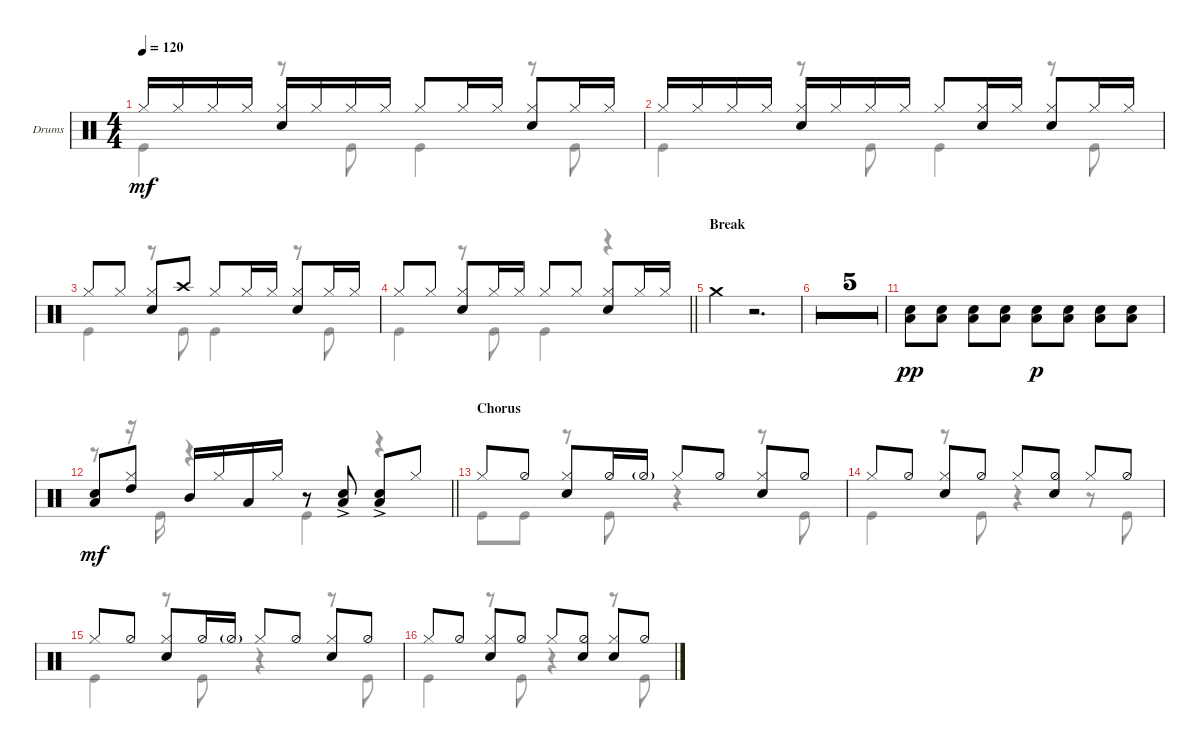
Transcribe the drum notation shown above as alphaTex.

\defaultSystemsLayout 4
\bracketExtendMode groupsimilarinstruments
\firstSystemTrackNameOrientation horizontal
\otherSystemsTrackNameOrientation horizontal
\track ("Drums" "Drums") {multiBarRest instrument percussion}
\staff {score}
\articulation defaults
\voice
\ts (4 4)
\tempo 120
\clef neutral
\ks c "Hi-Hat (closed)".16{dy mf} "Hi-Hat (closed)".16 "Hi-Hat (closed)".16 "Hi-Hat (closed)".16
("Hi-Hat (closed)" "Snare (hit) 2").16 "Hi-Hat (closed)".16 "Hi-Hat (closed)".16 "Hi-Hat (closed)".16 "Hi-Hat (closed)".8 "Hi-Hat (closed)".16 "Hi-Hat (closed)".16 ("Hi-Hat (closed)" "Snare (hit) 2").8 "Hi-Hat (closed)".16 "Hi-Hat (closed)".16 |
"Hi-Hat (closed)".16 "Hi-Hat (closed)".16 "Hi-Hat (closed)".16 "Hi-Hat (closed)".16 ("Hi-Hat (closed)" "Snare (hit) 2").16 "Hi-Hat (closed)".16 "Hi-Hat (closed)".16 "Hi-Hat (closed)".16 "Hi-Hat (closed)".8 ("Hi-Hat (closed)" "Snare (hit) 2").16 "Hi-Hat (closed)".16 ("Hi-Hat (closed)" "Snare (hit) 2").8 "Hi-Hat (closed)".16 "Hi-Hat (closed)".16 |
"Hi-Hat (closed)".8 "Hi-Hat (closed)".8 ("Hi-Hat (closed)" "Snare (hit) 2").8 "Crash high (hit)".8 "Hi-Hat (closed)".8 "Hi-Hat (closed)".16 "Hi-Hat (closed)".16 ("Hi-Hat (closed)" "Snare (hit) 2").8 "Hi-Hat (closed)".16 "Hi-Hat (closed)".16 |
\barLineRight lightlight "Hi-Hat (closed)".8 "Hi-Hat (closed)".8
("Hi-Hat (closed)" "Snare (hit) 2").8 "Hi-Hat (closed)".16 "Hi-Hat (closed)".16 "Hi-Hat (closed)".8 "Hi-Hat (closed)".8 ("Hi-Hat (closed)" "Snare (hit) 2").8 "Hi-Hat (closed)".16 "Hi-Hat (closed)".16 |
\section ("" "Break")
"Crash medium (hit)".4 r.2{d} |
|
|
|
|
|
("Snare (hit) 2" "Low Tom (hit)").8{dy pp} ("Snare (hit) 2" "Low Tom (hit)").8 ("Snare (hit) 2" "Low Tom (hit)").8 ("Snare (hit) 2" "Low Tom (hit)").8 ("Snare (hit) 2" "Low Tom (hit)").8{dy p} ("Snare (hit) 2" "Low Tom (hit)").8 ("Snare (hit) 2" "Low Tom (hit)").8 ("Snare (hit) 2" "Low Tom (hit)").8 |
\barLineRight lightlight
("Snare (hit) 2" "Low Tom (hit)").8{dy mf} ("High Tom (hit)" "Hi-Hat (closed)").8 "Mid Tom (hit)".16 "Hi-Hat (closed)".16 "Low Tom (hit)".16 "Hi-Hat (closed)".16 r.8 ("Snare (hit) 2"{ac} "Low Tom (hit)"{ac}).8 ("Snare (hit) 2"{ac} "Low Tom (hit)"{ac}).8 "Hi-Hat (closed)".8 |
\section ("" "Chorus")
"Hi-Hat (closed)".8 "Hi-Hat (half)".8 ("Hi-Hat (closed)" "Snare (hit) 2").8 "Hi-Hat (half)".16 "Hi-Hat (half)"{g}.16 "Hi-Hat (closed)".8 "Hi-Hat (half)".8 ("Hi-Hat (closed)" "Snare (hit) 2").8 "Hi-Hat (half)".8 |
"Hi-Hat (closed)".8 "Hi-Hat (half)".8 ("Hi-Hat (closed)" "Snare (hit) 2").8 "Hi-Hat (half)".8 "Hi-Hat (closed)".8 ("Hi-Hat (half)" "Snare (hit) 2").8 "Hi-Hat (closed)".8 "Hi-Hat (half)".8 |
"Hi-Hat (closed)".8 "Hi-Hat (half)".8 ("Hi-Hat (closed)" "Snare (hit) 2").8 "Hi-Hat (half)".16 "Hi-Hat (half)"{g}.16 "Hi-Hat (closed)".8 "Hi-Hat (half)".8 ("Hi-Hat (closed)" "Snare (hit) 2").8 "Hi-Hat (half)".8 |
"Hi-Hat (closed)".8 "Hi-Hat (half)".8 ("Hi-Hat (closed)" "Snare (hit) 2").8 "Hi-Hat (half)".8 "Hi-Hat (closed)".8 ("Hi-Hat (half)" "Snare (hit) 2").8 ("Hi-Hat (closed)" "Snare (hit) 2").8 "Hi-Hat (half)".8
\voice
\clef neutral
\ottava regular
\simile none
\ks c "Kick (hit)".4{dy mf}
r.8 "Kick (hit)".8 "Kick (hit)".4 r.8 "Kick (hit)".8 |
"Kick (hit)".4 r.8 "Kick (hit)".8 "Kick (hit)".4 r.8 "Kick (hit)".8 |
"Kick (hit)".4 r.8 "Kick (hit)".8 "Kick (hit)".4 r.8 "Kick (hit)".8 |
\barLineRight lightlight "Kick (hit)".4
r.8 "Kick (hit)".8 "Kick (hit)".4 r.4 |
|
|
|
|
|
|
|
\barLineRight lightlight
r.8 r.16 "Kick (hit)".16 r.4 "Kick (hit)".4 r.4 |
"Kick (hit)".8 "Kick (hit)".8 r.8 "Kick (hit)".8 r.4 r.8 "Kick (hit)".8 |
"Kick (hit)".4 r.8 "Kick (hit)".8 r.4 r.8 "Kick (hit)".8 |
"Kick (hit)".4 r.8 "Kick (hit)".8 r.4 r.8 "Kick (hit)".8 |
"Kick (hit)".4 r.8 "Kick (hit)".8 r.4 r.8 "Kick (hit)".8
